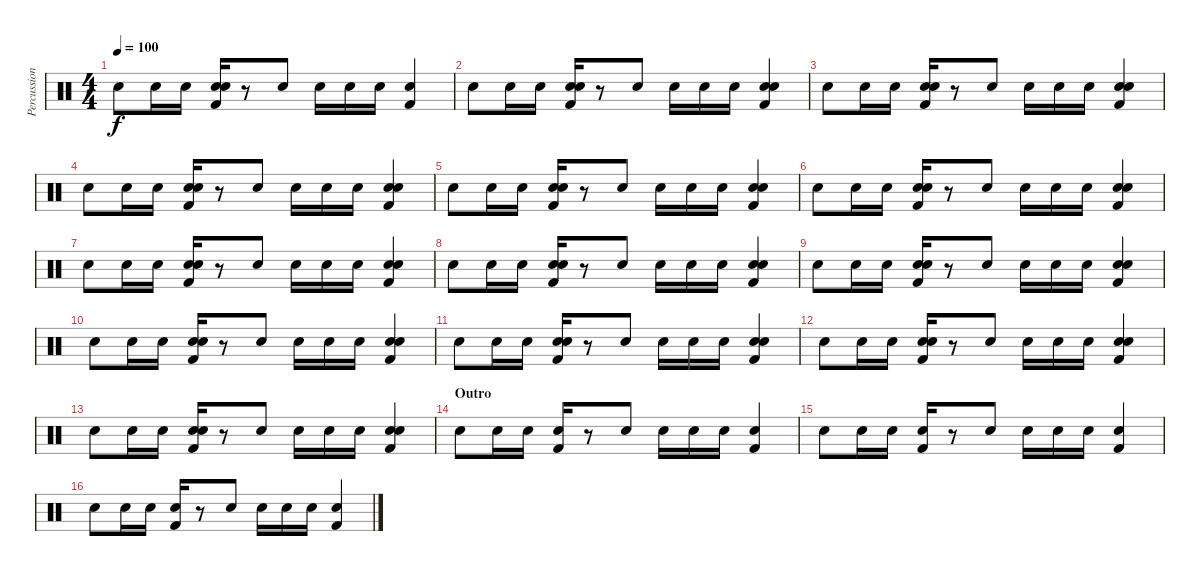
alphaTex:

\track ("Percussions" "Percussion") {instrument percussion}
\staff {score}
\articulation defaults
\ts (4 4)
\tempo 100
\clef neutral
\ks c "Electric Snare (hit)".8{dy f} "Electric Snare (hit)".16 "Electric Snare (hit)".16
("Snare (hit) 2" "Kick (hit) 2" "Electric Snare (hit)").16 r.8 "Electric Snare (hit)".8 "Electric Snare (hit)".16 "Electric Snare (hit)".16 "Electric Snare (hit)".16 ("Snare (hit) 2" "Kick (hit) 2").4 |
"Electric Snare (hit)".8 "Electric Snare (hit)".16 "Electric Snare (hit)".16 ("Snare (hit) 2" "Kick (hit) 2" "Electric Snare (hit)").16 r.8 "Electric Snare (hit)".8 "Electric Snare (hit)".16 "Electric Snare (hit)".16 "Electric Snare (hit)".16 ("Snare (hit) 2" "Kick (hit) 2" "Electric Snare (hit)").4 |
"Electric Snare (hit)".8 "Electric Snare (hit)".16 "Electric Snare (hit)".16 ("Snare (hit) 2" "Kick (hit) 2" "Electric Snare (hit)").16 r.8 "Electric Snare (hit)".8 "Electric Snare (hit)".16 "Electric Snare (hit)".16 "Electric Snare (hit)".16 ("Snare (hit) 2" "Kick (hit) 2" "Electric Snare (hit)").4 |
"Electric Snare (hit)".8 "Electric Snare (hit)".16 "Electric Snare (hit)".16 ("Snare (hit) 2" "Kick (hit) 2" "Electric Snare (hit)").16 r.8 "Electric Snare (hit)".8 "Electric Snare (hit)".16 "Electric Snare (hit)".16 "Electric Snare (hit)".16 ("Snare (hit) 2" "Kick (hit) 2" "Electric Snare (hit)").4 |
"Electric Snare (hit)".8 "Electric Snare (hit)".16 "Electric Snare (hit)".16 ("Snare (hit) 2" "Kick (hit) 2" "Electric Snare (hit)").16 r.8 "Electric Snare (hit)".8 "Electric Snare (hit)".16 "Electric Snare (hit)".16 "Electric Snare (hit)".16 ("Snare (hit) 2" "Kick (hit) 2" "Electric Snare (hit)").4 |
"Electric Snare (hit)".8 "Electric Snare (hit)".16 "Electric Snare (hit)".16 ("Snare (hit) 2" "Kick (hit) 2" "Electric Snare (hit)").16 r.8 "Electric Snare (hit)".8 "Electric Snare (hit)".16 "Electric Snare (hit)".16 "Electric Snare (hit)".16 ("Snare (hit) 2" "Kick (hit) 2" "Electric Snare (hit)").4 |
"Electric Snare (hit)".8 "Electric Snare (hit)".16 "Electric Snare (hit)".16 ("Snare (hit) 2" "Kick (hit) 2" "Electric Snare (hit)").16 r.8 "Electric Snare (hit)".8 "Electric Snare (hit)".16 "Electric Snare (hit)".16 "Electric Snare (hit)".16 ("Snare (hit) 2" "Kick (hit) 2" "Electric Snare (hit)").4 |
"Electric Snare (hit)".8 "Electric Snare (hit)".16 "Electric Snare (hit)".16 ("Snare (hit) 2" "Kick (hit) 2" "Electric Snare (hit)").16 r.8 "Electric Snare (hit)".8 "Electric Snare (hit)".16 "Electric Snare (hit)".16 "Electric Snare (hit)".16 ("Snare (hit) 2" "Kick (hit) 2" "Electric Snare (hit)").4 |
"Electric Snare (hit)".8 "Electric Snare (hit)".16 "Electric Snare (hit)".16 ("Snare (hit) 2" "Kick (hit) 2" "Electric Snare (hit)").16 r.8 "Electric Snare (hit)".8 "Electric Snare (hit)".16 "Electric Snare (hit)".16 "Electric Snare (hit)".16 ("Snare (hit) 2" "Kick (hit) 2" "Electric Snare (hit)").4 |
"Electric Snare (hit)".8 "Electric Snare (hit)".16 "Electric Snare (hit)".16 ("Snare (hit) 2" "Kick (hit) 2" "Electric Snare (hit)").16 r.8 "Electric Snare (hit)".8 "Electric Snare (hit)".16 "Electric Snare (hit)".16 "Electric Snare (hit)".16 ("Snare (hit) 2" "Kick (hit) 2" "Electric Snare (hit)").4 |
"Electric Snare (hit)".8 "Electric Snare (hit)".16 "Electric Snare (hit)".16 ("Snare (hit) 2" "Kick (hit) 2" "Electric Snare (hit)").16 r.8 "Electric Snare (hit)".8 "Electric Snare (hit)".16 "Electric Snare (hit)".16 "Electric Snare (hit)".16 ("Snare (hit) 2" "Kick (hit) 2" "Electric Snare (hit)").4 |
"Electric Snare (hit)".8 "Electric Snare (hit)".16 "Electric Snare (hit)".16 ("Snare (hit) 2" "Kick (hit) 2" "Electric Snare (hit)").16 r.8 "Electric Snare (hit)".8 "Electric Snare (hit)".16 "Electric Snare (hit)".16 "Electric Snare (hit)".16 ("Snare (hit) 2" "Kick (hit) 2" "Electric Snare (hit)").4 |
"Electric Snare (hit)".8 "Electric Snare (hit)".16 "Electric Snare (hit)".16 ("Snare (hit) 2" "Kick (hit) 2" "Electric Snare (hit)").16 r.8 "Electric Snare (hit)".8 "Electric Snare (hit)".16 "Electric Snare (hit)".16 "Electric Snare (hit)".16 ("Snare (hit) 2" "Kick (hit) 2" "Electric Snare (hit)").4 |
\section ("" "Outro")
"Electric Snare (hit)".8 "Electric Snare (hit)".16 "Electric Snare (hit)".16 ("Snare (hit) 2" "Kick (hit) 2").16 r.8 "Electric Snare (hit)".8 "Electric Snare (hit)".16 "Electric Snare (hit)".16 "Electric Snare (hit)".16 ("Snare (hit) 2" "Kick (hit) 2").4 |
"Electric Snare (hit)".8 "Electric Snare (hit)".16 "Electric Snare (hit)".16 ("Snare (hit) 2" "Kick (hit) 2").16 r.8 "Electric Snare (hit)".8 "Electric Snare (hit)".16 "Electric Snare (hit)".16 "Electric Snare (hit)".16 ("Snare (hit) 2" "Kick (hit) 2").4 |
"Electric Snare (hit)".8 "Electric Snare (hit)".16 "Electric Snare (hit)".16 ("Snare (hit) 2" "Kick (hit) 2").16 r.8 "Electric Snare (hit)".8 "Electric Snare (hit)".16 "Electric Snare (hit)".16 "Electric Snare (hit)".16 ("Snare (hit) 2" "Kick (hit) 2").4
